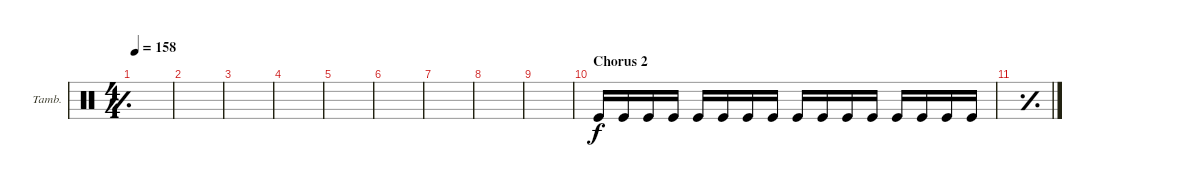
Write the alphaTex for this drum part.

\defaultSystemsLayout 4
\bracketExtendMode groupsimilarinstruments
\firstSystemTrackNameOrientation horizontal
\otherSystemsTrackNameOrientation horizontal
\track ("Tambourine" "Tamb.") {instrument percussion}
\staff {score}
\articulation defaults
\ts (4 4)
\tempo 158
\clef neutral
\simile simple
\ks c
|
|
|
|
|
|
|
|
|
\section ("" "Chorus 2")
\simile none "Kick (hit)".16 "Kick (hit)".16 "Kick (hit)".16 "Kick (hit)".16 "Kick (hit)".16 "Kick (hit)".16 "Kick (hit)".16 "Kick (hit)".16 "Kick (hit)".16 "Kick (hit)".16 "Kick (hit)".16 "Kick (hit)".16 "Kick (hit)".16 "Kick (hit)".16 "Kick (hit)".16 "Kick (hit)".16
|
\simile simple
